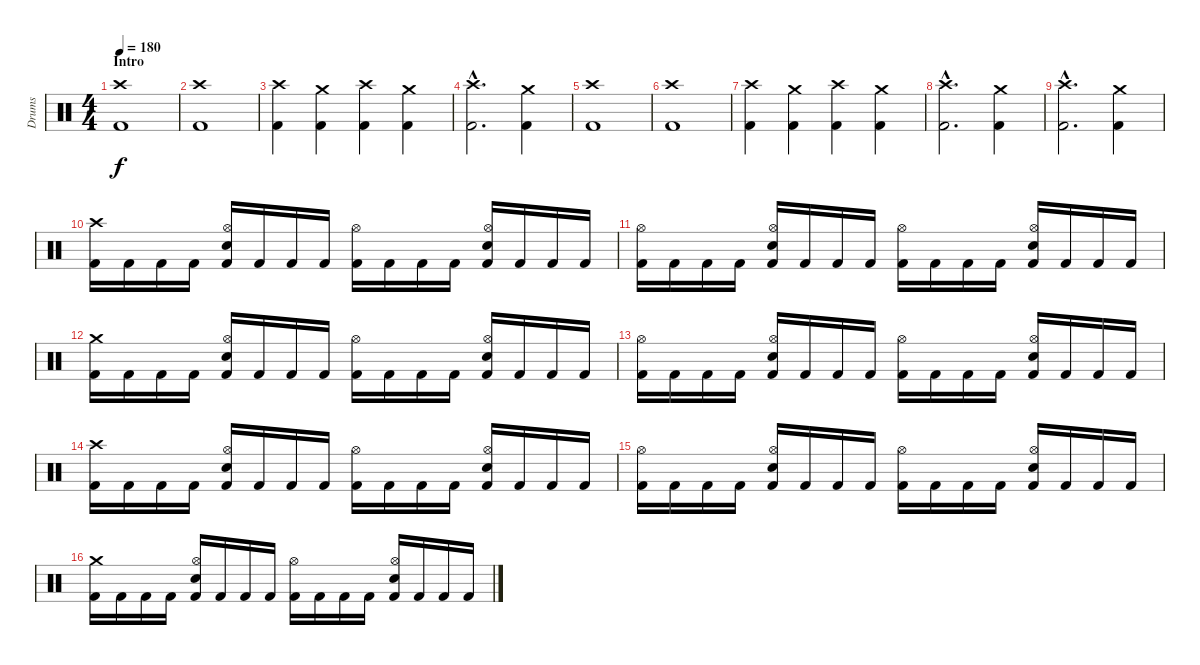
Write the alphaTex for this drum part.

\track ("Drums" "Drums") {instrument percussion}
\staff {score}
\articulation defaults
\ts (4 4)
\section ("" "Intro")
\tempo 180
\clef neutral
\ks c
("Crash high (hit)" "Kick (hit) 2").1{dy f} |
("Crash high (hit)" "Kick (hit) 2").1 |
("Crash high (hit)" "Kick (hit) 2").4 ("Crash medium (hit)" "Kick (hit) 2").4 ("Crash high (hit)" "Kick (hit) 2").4 ("Crash medium (hit)" "Kick (hit) 2").4 |
("Crash high (hit)"{hac} "Kick (hit) 2"{hac}).2{d} ("Crash medium (hit)" "Kick (hit) 2").4 |
("Crash high (hit)" "Kick (hit) 2").1 |
("Crash high (hit)" "Kick (hit) 2").1 |
("Crash high (hit)" "Kick (hit) 2").4 ("Crash medium (hit)" "Kick (hit) 2").4 ("Crash high (hit)" "Kick (hit) 2").4 ("Crash medium (hit)" "Kick (hit) 2").4 |
("Crash high (hit)"{hac} "Kick (hit) 2"{hac}).2{d} ("Crash medium (hit)" "Kick (hit) 2").4 |
("Crash high (hit)"{hac} "Kick (hit) 2"{hac}).2{d} ("Crash medium (hit)" "Kick (hit) 2").4 |
("Crash high (hit)" "Kick (hit) 2").16 "Kick (hit) 2".16 "Kick (hit) 2".16 "Kick (hit) 2".16 ("Hi-Hat (open)" "Electric Snare (hit)" "Kick (hit) 2").16 "Kick (hit) 2".16 "Kick (hit) 2".16 "Kick (hit) 2".16 ("Hi-Hat (open)" "Kick (hit) 2").16 "Kick (hit) 2".16 "Kick (hit) 2".16 "Kick (hit) 2".16 ("Hi-Hat (open)" "Electric Snare (hit)" "Kick (hit) 2").16 "Kick (hit) 2".16 "Kick (hit) 2".16 "Kick (hit) 2".16 |
("Hi-Hat (open)" "Kick (hit) 2").16 "Kick (hit) 2".16 "Kick (hit) 2".16 "Kick (hit) 2".16 ("Hi-Hat (open)" "Electric Snare (hit)" "Kick (hit) 2").16 "Kick (hit) 2".16 "Kick (hit) 2".16 "Kick (hit) 2".16 ("Hi-Hat (open)" "Kick (hit) 2").16 "Kick (hit) 2".16 "Kick (hit) 2".16 "Kick (hit) 2".16 ("Hi-Hat (open)" "Electric Snare (hit)" "Kick (hit) 2").16 "Kick (hit) 2".16 "Kick (hit) 2".16 "Kick (hit) 2".16 |
("Crash medium (hit)" "Kick (hit) 2").16 "Kick (hit) 2".16 "Kick (hit) 2".16 "Kick (hit) 2".16 ("Hi-Hat (open)" "Electric Snare (hit)" "Kick (hit) 2").16 "Kick (hit) 2".16 "Kick (hit) 2".16 "Kick (hit) 2".16 ("Hi-Hat (open)" "Kick (hit) 2").16 "Kick (hit) 2".16 "Kick (hit) 2".16 "Kick (hit) 2".16 ("Hi-Hat (open)" "Electric Snare (hit)" "Kick (hit) 2").16 "Kick (hit) 2".16 "Kick (hit) 2".16 "Kick (hit) 2".16 |
("Hi-Hat (open)" "Kick (hit) 2").16 "Kick (hit) 2".16 "Kick (hit) 2".16 "Kick (hit) 2".16 ("Hi-Hat (open)" "Electric Snare (hit)" "Kick (hit) 2").16 "Kick (hit) 2".16 "Kick (hit) 2".16 "Kick (hit) 2".16 ("Hi-Hat (open)" "Kick (hit) 2").16 "Kick (hit) 2".16 "Kick (hit) 2".16 "Kick (hit) 2".16 ("Hi-Hat (open)" "Electric Snare (hit)" "Kick (hit) 2").16 "Kick (hit) 2".16 "Kick (hit) 2".16 "Kick (hit) 2".16 |
("Crash high (hit)" "Kick (hit) 2").16 "Kick (hit) 2".16 "Kick (hit) 2".16 "Kick (hit) 2".16 ("Hi-Hat (open)" "Electric Snare (hit)" "Kick (hit) 2").16 "Kick (hit) 2".16 "Kick (hit) 2".16 "Kick (hit) 2".16 ("Hi-Hat (open)" "Kick (hit) 2").16 "Kick (hit) 2".16 "Kick (hit) 2".16 "Kick (hit) 2".16 ("Hi-Hat (open)" "Electric Snare (hit)" "Kick (hit) 2").16 "Kick (hit) 2".16 "Kick (hit) 2".16 "Kick (hit) 2".16 |
("Hi-Hat (open)" "Kick (hit) 2").16 "Kick (hit) 2".16 "Kick (hit) 2".16 "Kick (hit) 2".16 ("Hi-Hat (open)" "Electric Snare (hit)" "Kick (hit) 2").16 "Kick (hit) 2".16 "Kick (hit) 2".16 "Kick (hit) 2".16 ("Hi-Hat (open)" "Kick (hit) 2").16 "Kick (hit) 2".16 "Kick (hit) 2".16 "Kick (hit) 2".16 ("Hi-Hat (open)" "Electric Snare (hit)" "Kick (hit) 2").16 "Kick (hit) 2".16 "Kick (hit) 2".16 "Kick (hit) 2".16 |
("Crash medium (hit)" "Kick (hit) 2").16 "Kick (hit) 2".16 "Kick (hit) 2".16 "Kick (hit) 2".16 ("Hi-Hat (open)" "Electric Snare (hit)" "Kick (hit) 2").16 "Kick (hit) 2".16 "Kick (hit) 2".16 "Kick (hit) 2".16 ("Hi-Hat (open)" "Kick (hit) 2").16 "Kick (hit) 2".16 "Kick (hit) 2".16 "Kick (hit) 2".16 ("Hi-Hat (open)" "Electric Snare (hit)" "Kick (hit) 2").16 "Kick (hit) 2".16 "Kick (hit) 2".16 "Kick (hit) 2".16
